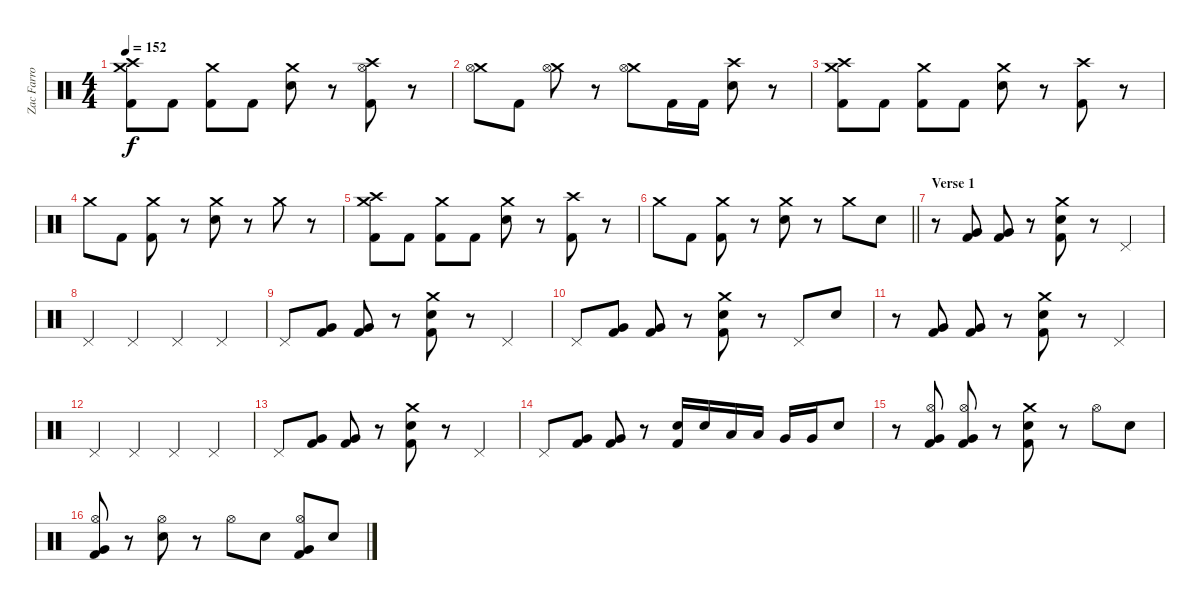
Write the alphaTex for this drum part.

\track ("Zac Farro - Drums" "Zac Farro ") {instrument percussion}
\staff {score}
\articulation defaults
\ts (4 4)
\tempo 152
\clef neutral
\ks c
("Crash high (hit)" "Crash medium (hit)" "Kick (hit) 2").8{dy f} "Kick (hit) 2".8 ("Crash medium (hit)" "Kick (hit) 2").8 "Kick (hit) 2".8 ("Crash medium (hit)" "Electric Snare (hit)").8 r.8 ("Crash high (hit)" "Hi-Hat (open)" "Kick (hit) 2").8 r.8 |
("Crash medium (hit)" "Hi-Hat (open)").8 "Kick (hit) 2".8 ("Crash medium (hit)" "Hi-Hat (open)").8 r.8 ("Crash medium (hit)" "Hi-Hat (open)").8 "Kick (hit) 2".16 "Kick (hit) 2".16 ("Crash high (hit)" "Electric Snare (hit)").8 r.8 |
("Crash high (hit)" "Crash medium (hit)" "Kick (hit) 2").8 "Kick (hit) 2".8 ("Crash medium (hit)" "Kick (hit) 2").8 "Kick (hit) 2".8 ("Crash medium (hit)" "Electric Snare (hit)").8 r.8 ("Crash high (hit)" "Kick (hit) 2").8 r.8 |
"Crash medium (hit)".8 "Kick (hit) 2".8 ("Crash medium (hit)" "Kick (hit) 2").8 r.8 ("Crash medium (hit)" "Electric Snare (hit)").8 r.8 "Crash medium (hit)".8 r.8 |
("Crash high (hit)" "Crash medium (hit)" "Kick (hit) 2").8 "Kick (hit) 2".8 ("Crash medium (hit)" "Kick (hit) 2").8 "Kick (hit) 2".8 ("Crash medium (hit)" "Electric Snare (hit)").8 r.8 ("Crash high (hit)" "Kick (hit) 2").8 r.8 |
\barLineRight lightlight "Crash medium (hit)".8 "Kick (hit) 2".8
("Crash medium (hit)" "Kick (hit) 2").8 r.8 ("Crash medium (hit)" "Electric Snare (hit)").8 r.8 "Crash medium (hit)".8 "Electric Snare (hit)".8 |
\section ("" "Verse 1")
r.8 ("Very Low Tom (hit)" "Kick (hit) 2").8 ("Very Low Tom (hit)" "Kick (hit) 2").8 r.8 ("Crash medium (hit)" "Electric Snare (hit)" "Kick (hit) 2").8 r.8 "Pedal Hi-Hat (hit)".4 |
"Pedal Hi-Hat (hit)".4 "Pedal Hi-Hat (hit)".4 "Pedal Hi-Hat (hit)".4 "Pedal Hi-Hat (hit)".4 |
"Pedal Hi-Hat (hit)".8 ("Very Low Tom (hit)" "Kick (hit) 2").8 ("Very Low Tom (hit)" "Kick (hit) 2").8 r.8 ("Crash medium (hit)" "Electric Snare (hit)" "Kick (hit) 2").8 r.8 "Pedal Hi-Hat (hit)".4 |
"Pedal Hi-Hat (hit)".8 ("Very Low Tom (hit)" "Kick (hit) 2").8 ("Very Low Tom (hit)" "Kick (hit) 2").8 r.8 ("Crash medium (hit)" "Electric Snare (hit)" "Kick (hit) 2").8 r.8 "Pedal Hi-Hat (hit)".8 "Electric Snare (hit)".8 |
r.8 ("Very Low Tom (hit)" "Kick (hit) 2").8 ("Very Low Tom (hit)" "Kick (hit) 2").8 r.8 ("Crash medium (hit)" "Electric Snare (hit)" "Kick (hit) 2").8 r.8 "Pedal Hi-Hat (hit)".4 |
"Pedal Hi-Hat (hit)".4 "Pedal Hi-Hat (hit)".4 "Pedal Hi-Hat (hit)".4 "Pedal Hi-Hat (hit)".4 |
"Pedal Hi-Hat (hit)".8 ("Very Low Tom (hit)" "Kick (hit) 2").8 ("Very Low Tom (hit)" "Kick (hit) 2").8 r.8 ("Crash medium (hit)" "Electric Snare (hit)" "Kick (hit) 2").8 r.8 "Pedal Hi-Hat (hit)".4 |
"Pedal Hi-Hat (hit)".8 ("Very Low Tom (hit)" "Kick (hit) 2").8 ("Very Low Tom (hit)" "Kick (hit) 2").8 r.8 ("Electric Snare (hit)" "Kick (hit) 2").16 "Electric Snare (hit)".16 "Low Tom (hit)".16 "Low Tom (hit)".16 "Very Low Tom (hit)".16 "Very Low Tom (hit)".16 "Electric Snare (hit)".8 |
r.8 ("Hi-Hat (open)" "Very Low Tom (hit)" "Kick (hit) 2").8 ("Hi-Hat (open)" "Very Low Tom (hit)" "Kick (hit) 2").8 r.8 ("Crash medium (hit)" "Electric Snare (hit)" "Kick (hit) 2").8 r.8 "Hi-Hat (open)".8 "Electric Snare (hit)".8 |
("Hi-Hat (open)" "Very Low Tom (hit)" "Kick (hit) 2").8 r.8 ("Hi-Hat (open)" "Electric Snare (hit)").8 r.8 "Hi-Hat (open)".8 "Electric Snare (hit)".8 ("Hi-Hat (open)" "Very Low Tom (hit)" "Kick (hit) 2").8 "Electric Snare (hit)".8
